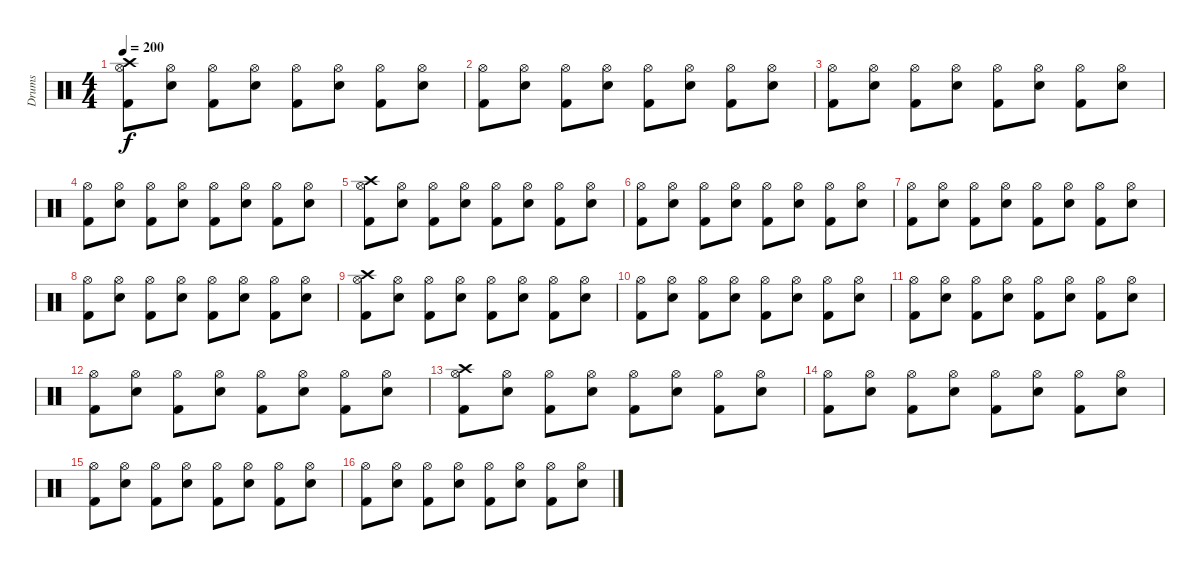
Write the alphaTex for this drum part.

\track ("Drums" "Drums") {instrument percussion}
\staff {score}
\articulation defaults
\ts (4 4)
\tempo 200
\clef neutral
\ks c
("Kick (hit) 2" "Hi-Hat (open)" "Crash high (hit)").8{dy f} ("Snare (hit) 2" "Hi-Hat (open)").8 ("Kick (hit) 2" "Hi-Hat (open)").8 ("Snare (hit) 2" "Hi-Hat (open)").8 ("Kick (hit) 2" "Hi-Hat (open)").8 ("Snare (hit) 2" "Hi-Hat (open)").8 ("Kick (hit) 2" "Hi-Hat (open)").8 ("Snare (hit) 2" "Hi-Hat (open)").8 |
("Kick (hit) 2" "Hi-Hat (open)").8 ("Snare (hit) 2" "Hi-Hat (open)").8 ("Kick (hit) 2" "Hi-Hat (open)").8 ("Snare (hit) 2" "Hi-Hat (open)").8 ("Kick (hit) 2" "Hi-Hat (open)").8 ("Snare (hit) 2" "Hi-Hat (open)").8 ("Kick (hit) 2" "Hi-Hat (open)").8 ("Snare (hit) 2" "Hi-Hat (open)").8 |
("Kick (hit) 2" "Hi-Hat (open)").8 ("Snare (hit) 2" "Hi-Hat (open)").8 ("Kick (hit) 2" "Hi-Hat (open)").8 ("Snare (hit) 2" "Hi-Hat (open)").8 ("Kick (hit) 2" "Hi-Hat (open)").8 ("Snare (hit) 2" "Hi-Hat (open)").8 ("Kick (hit) 2" "Hi-Hat (open)").8 ("Snare (hit) 2" "Hi-Hat (open)").8 |
("Kick (hit) 2" "Hi-Hat (open)").8 ("Snare (hit) 2" "Hi-Hat (open)").8 ("Kick (hit) 2" "Hi-Hat (open)").8 ("Snare (hit) 2" "Hi-Hat (open)").8 ("Kick (hit) 2" "Hi-Hat (open)").8 ("Snare (hit) 2" "Hi-Hat (open)").8 ("Kick (hit) 2" "Hi-Hat (open)").8 ("Snare (hit) 2" "Hi-Hat (open)").8 |
("Kick (hit) 2" "Hi-Hat (open)" "Crash high (hit)").8 ("Snare (hit) 2" "Hi-Hat (open)").8 ("Kick (hit) 2" "Hi-Hat (open)").8 ("Snare (hit) 2" "Hi-Hat (open)").8 ("Kick (hit) 2" "Hi-Hat (open)").8 ("Snare (hit) 2" "Hi-Hat (open)").8 ("Kick (hit) 2" "Hi-Hat (open)").8 ("Snare (hit) 2" "Hi-Hat (open)").8 |
("Kick (hit) 2" "Hi-Hat (open)").8 ("Snare (hit) 2" "Hi-Hat (open)").8 ("Kick (hit) 2" "Hi-Hat (open)").8 ("Snare (hit) 2" "Hi-Hat (open)").8 ("Kick (hit) 2" "Hi-Hat (open)").8 ("Snare (hit) 2" "Hi-Hat (open)").8 ("Kick (hit) 2" "Hi-Hat (open)").8 ("Snare (hit) 2" "Hi-Hat (open)").8 |
("Kick (hit) 2" "Hi-Hat (open)").8 ("Snare (hit) 2" "Hi-Hat (open)").8 ("Kick (hit) 2" "Hi-Hat (open)").8 ("Snare (hit) 2" "Hi-Hat (open)").8 ("Kick (hit) 2" "Hi-Hat (open)").8 ("Snare (hit) 2" "Hi-Hat (open)").8 ("Kick (hit) 2" "Hi-Hat (open)").8 ("Snare (hit) 2" "Hi-Hat (open)").8 |
("Kick (hit) 2" "Hi-Hat (open)").8 ("Snare (hit) 2" "Hi-Hat (open)").8 ("Kick (hit) 2" "Hi-Hat (open)").8 ("Snare (hit) 2" "Hi-Hat (open)").8 ("Kick (hit) 2" "Hi-Hat (open)").8 ("Snare (hit) 2" "Hi-Hat (open)").8 ("Kick (hit) 2" "Hi-Hat (open)").8 ("Snare (hit) 2" "Hi-Hat (open)").8 |
("Kick (hit) 2" "Hi-Hat (open)" "Crash high (hit)").8 ("Snare (hit) 2" "Hi-Hat (open)").8 ("Kick (hit) 2" "Hi-Hat (open)").8 ("Snare (hit) 2" "Hi-Hat (open)").8 ("Kick (hit) 2" "Hi-Hat (open)").8 ("Snare (hit) 2" "Hi-Hat (open)").8 ("Kick (hit) 2" "Hi-Hat (open)").8 ("Snare (hit) 2" "Hi-Hat (open)").8 |
("Kick (hit) 2" "Hi-Hat (open)").8 ("Snare (hit) 2" "Hi-Hat (open)").8 ("Kick (hit) 2" "Hi-Hat (open)").8 ("Snare (hit) 2" "Hi-Hat (open)").8 ("Kick (hit) 2" "Hi-Hat (open)").8 ("Snare (hit) 2" "Hi-Hat (open)").8 ("Kick (hit) 2" "Hi-Hat (open)").8 ("Snare (hit) 2" "Hi-Hat (open)").8 |
("Kick (hit) 2" "Hi-Hat (open)").8 ("Snare (hit) 2" "Hi-Hat (open)").8 ("Kick (hit) 2" "Hi-Hat (open)").8 ("Snare (hit) 2" "Hi-Hat (open)").8 ("Kick (hit) 2" "Hi-Hat (open)").8 ("Snare (hit) 2" "Hi-Hat (open)").8 ("Kick (hit) 2" "Hi-Hat (open)").8 ("Snare (hit) 2" "Hi-Hat (open)").8 |
("Kick (hit) 2" "Hi-Hat (open)").8 ("Snare (hit) 2" "Hi-Hat (open)").8 ("Kick (hit) 2" "Hi-Hat (open)").8 ("Snare (hit) 2" "Hi-Hat (open)").8 ("Kick (hit) 2" "Hi-Hat (open)").8 ("Snare (hit) 2" "Hi-Hat (open)").8 ("Kick (hit) 2" "Hi-Hat (open)").8 ("Snare (hit) 2" "Hi-Hat (open)").8 |
("Kick (hit) 2" "Hi-Hat (open)" "Crash high (hit)").8 ("Snare (hit) 2" "Hi-Hat (open)").8 ("Kick (hit) 2" "Hi-Hat (open)").8 ("Snare (hit) 2" "Hi-Hat (open)").8 ("Kick (hit) 2" "Hi-Hat (open)").8 ("Snare (hit) 2" "Hi-Hat (open)").8 ("Kick (hit) 2" "Hi-Hat (open)").8 ("Snare (hit) 2" "Hi-Hat (open)").8 |
("Kick (hit) 2" "Hi-Hat (open)").8 ("Snare (hit) 2" "Hi-Hat (open)").8 ("Kick (hit) 2" "Hi-Hat (open)").8 ("Snare (hit) 2" "Hi-Hat (open)").8 ("Kick (hit) 2" "Hi-Hat (open)").8 ("Snare (hit) 2" "Hi-Hat (open)").8 ("Kick (hit) 2" "Hi-Hat (open)").8 ("Snare (hit) 2" "Hi-Hat (open)").8 |
("Kick (hit) 2" "Hi-Hat (open)").8 ("Snare (hit) 2" "Hi-Hat (open)").8 ("Kick (hit) 2" "Hi-Hat (open)").8 ("Snare (hit) 2" "Hi-Hat (open)").8 ("Kick (hit) 2" "Hi-Hat (open)").8 ("Snare (hit) 2" "Hi-Hat (open)").8 ("Kick (hit) 2" "Hi-Hat (open)").8 ("Snare (hit) 2" "Hi-Hat (open)").8 |
("Kick (hit) 2" "Hi-Hat (open)").8 ("Snare (hit) 2" "Hi-Hat (open)").8 ("Kick (hit) 2" "Hi-Hat (open)").8 ("Snare (hit) 2" "Hi-Hat (open)").8 ("Kick (hit) 2" "Hi-Hat (open)").8 ("Snare (hit) 2" "Hi-Hat (open)").8 ("Kick (hit) 2" "Hi-Hat (open)").8 ("Snare (hit) 2" "Hi-Hat (open)").8
